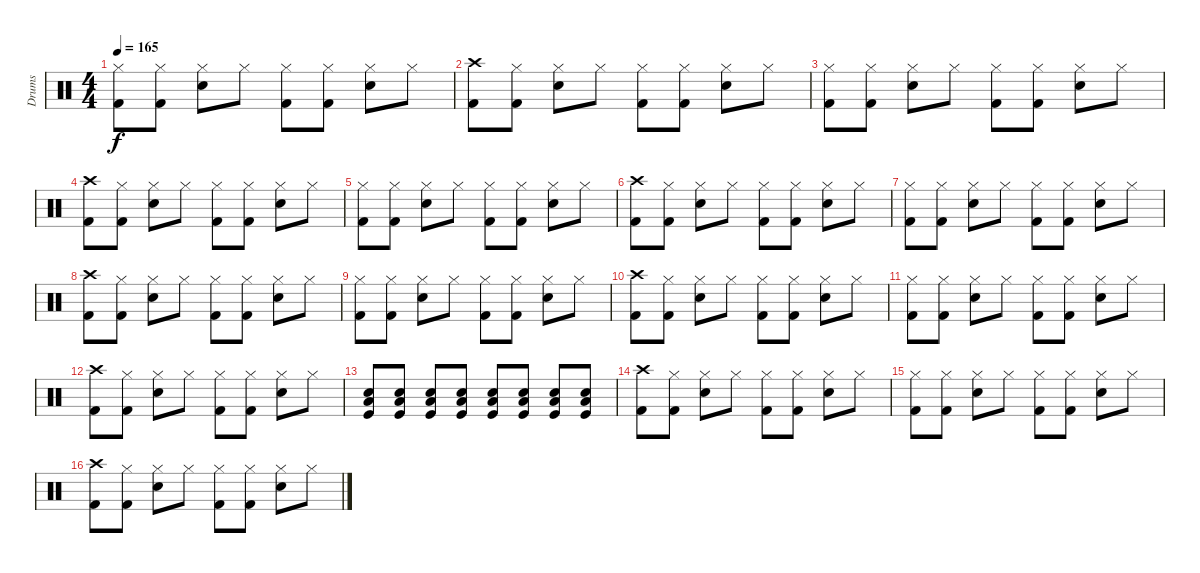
\track ("Drums" "Drums") {instrument percussion}
\staff {score}
\articulation defaults
\ts (4 4)
\tempo 165
\clef neutral
\ks c
("Hi-Hat (closed)" "Kick (hit) 2").8{dy f} ("Hi-Hat (closed)" "Kick (hit) 2").8 ("Hi-Hat (closed)" "Snare (hit) 2").8 "Hi-Hat (closed)".8 ("Hi-Hat (closed)" "Kick (hit) 2").8 ("Hi-Hat (closed)" "Kick (hit) 2").8 ("Hi-Hat (closed)" "Snare (hit) 2").8 "Hi-Hat (closed)".8 |
("Crash high (hit)" "Kick (hit) 2").8 ("Hi-Hat (closed)" "Kick (hit) 2").8 ("Hi-Hat (closed)" "Snare (hit) 2").8 "Hi-Hat (closed)".8 ("Hi-Hat (closed)" "Kick (hit) 2").8 ("Hi-Hat (closed)" "Kick (hit) 2").8 ("Hi-Hat (closed)" "Snare (hit) 2").8 "Hi-Hat (closed)".8 |
("Hi-Hat (closed)" "Kick (hit) 2").8 ("Hi-Hat (closed)" "Kick (hit) 2").8 ("Hi-Hat (closed)" "Snare (hit) 2").8 "Hi-Hat (closed)".8 ("Hi-Hat (closed)" "Kick (hit) 2").8 ("Hi-Hat (closed)" "Kick (hit) 2").8 ("Hi-Hat (closed)" "Snare (hit) 2").8 "Hi-Hat (closed)".8 |
("Crash high (hit)" "Kick (hit) 2").8 ("Hi-Hat (closed)" "Kick (hit) 2").8 ("Hi-Hat (closed)" "Snare (hit) 2").8 "Hi-Hat (closed)".8 ("Hi-Hat (closed)" "Kick (hit) 2").8 ("Hi-Hat (closed)" "Kick (hit) 2").8 ("Hi-Hat (closed)" "Snare (hit) 2").8 "Hi-Hat (closed)".8 |
("Hi-Hat (closed)" "Kick (hit) 2").8 ("Hi-Hat (closed)" "Kick (hit) 2").8 ("Hi-Hat (closed)" "Snare (hit) 2").8 "Hi-Hat (closed)".8 ("Hi-Hat (closed)" "Kick (hit) 2").8 ("Hi-Hat (closed)" "Kick (hit) 2").8 ("Hi-Hat (closed)" "Snare (hit) 2").8 "Hi-Hat (closed)".8 |
("Crash high (hit)" "Kick (hit) 2").8 ("Hi-Hat (closed)" "Kick (hit) 2").8 ("Hi-Hat (closed)" "Snare (hit) 2").8 "Hi-Hat (closed)".8 ("Hi-Hat (closed)" "Kick (hit) 2").8 ("Hi-Hat (closed)" "Kick (hit) 2").8 ("Hi-Hat (closed)" "Snare (hit) 2").8 "Hi-Hat (closed)".8 |
("Hi-Hat (closed)" "Kick (hit) 2").8 ("Hi-Hat (closed)" "Kick (hit) 2").8 ("Hi-Hat (closed)" "Snare (hit) 2").8 "Hi-Hat (closed)".8 ("Hi-Hat (closed)" "Kick (hit) 2").8 ("Hi-Hat (closed)" "Kick (hit) 2").8 ("Hi-Hat (closed)" "Snare (hit) 2").8 "Hi-Hat (closed)".8 |
("Crash high (hit)" "Kick (hit) 2").8 ("Hi-Hat (closed)" "Kick (hit) 2").8 ("Hi-Hat (closed)" "Snare (hit) 2").8 "Hi-Hat (closed)".8 ("Hi-Hat (closed)" "Kick (hit) 2").8 ("Hi-Hat (closed)" "Kick (hit) 2").8 ("Hi-Hat (closed)" "Snare (hit) 2").8 "Hi-Hat (closed)".8 |
("Hi-Hat (closed)" "Kick (hit) 2").8 ("Hi-Hat (closed)" "Kick (hit) 2").8 ("Hi-Hat (closed)" "Snare (hit) 2").8 "Hi-Hat (closed)".8 ("Hi-Hat (closed)" "Kick (hit) 2").8 ("Hi-Hat (closed)" "Kick (hit) 2").8 ("Hi-Hat (closed)" "Snare (hit) 2").8 "Hi-Hat (closed)".8 |
("Crash high (hit)" "Kick (hit) 2").8 ("Hi-Hat (closed)" "Kick (hit) 2").8 ("Hi-Hat (closed)" "Snare (hit) 2").8 "Hi-Hat (closed)".8 ("Hi-Hat (closed)" "Kick (hit) 2").8 ("Hi-Hat (closed)" "Kick (hit) 2").8 ("Hi-Hat (closed)" "Snare (hit) 2").8 "Hi-Hat (closed)".8 |
("Hi-Hat (closed)" "Kick (hit) 2").8 ("Hi-Hat (closed)" "Kick (hit) 2").8 ("Hi-Hat (closed)" "Snare (hit) 2").8 "Hi-Hat (closed)".8 ("Hi-Hat (closed)" "Kick (hit) 2").8 ("Hi-Hat (closed)" "Kick (hit) 2").8 ("Hi-Hat (closed)" "Snare (hit) 2").8 "Hi-Hat (closed)".8 |
("Crash high (hit)" "Kick (hit) 2").8 ("Hi-Hat (closed)" "Kick (hit) 2").8 ("Hi-Hat (closed)" "Snare (hit) 2").8 "Hi-Hat (closed)".8 ("Hi-Hat (closed)" "Kick (hit) 2").8 ("Hi-Hat (closed)" "Kick (hit) 2").8 ("Hi-Hat (closed)" "Snare (hit) 2").8 "Hi-Hat (closed)".8 |
("Snare (hit) 2" "Low Floor Tom (hit)" "Kick (hit)").8 ("Snare (hit) 2" "Low Floor Tom (hit)" "Kick (hit)").8 ("Snare (hit) 2" "Low Floor Tom (hit)" "Kick (hit)").8 ("Snare (hit) 2" "Low Floor Tom (hit)" "Kick (hit)").8 ("Snare (hit) 2" "Low Floor Tom (hit)" "Kick (hit)").8 ("Snare (hit) 2" "Low Floor Tom (hit)" "Kick (hit)").8 ("Snare (hit) 2" "Low Floor Tom (hit)" "Kick (hit)").8 ("Snare (hit) 2" "Low Floor Tom (hit)" "Kick (hit)").8 |
("Crash high (hit)" "Kick (hit) 2").8{volume 14} ("Hi-Hat (closed)" "Kick (hit) 2").8 ("Hi-Hat (closed)" "Snare (hit) 2").8 "Hi-Hat (closed)".8 ("Hi-Hat (closed)" "Kick (hit) 2").8 ("Hi-Hat (closed)" "Kick (hit) 2").8 ("Hi-Hat (closed)" "Snare (hit) 2").8 "Hi-Hat (closed)".8 |
("Hi-Hat (closed)" "Kick (hit) 2").8{volume 12} ("Hi-Hat (closed)" "Kick (hit) 2").8 ("Hi-Hat (closed)" "Snare (hit) 2").8 "Hi-Hat (closed)".8 ("Hi-Hat (closed)" "Kick (hit) 2").8 ("Hi-Hat (closed)" "Kick (hit) 2").8 ("Hi-Hat (closed)" "Snare (hit) 2").8 "Hi-Hat (closed)".8 |
("Crash high (hit)" "Kick (hit) 2").8{volume 10} ("Hi-Hat (closed)" "Kick (hit) 2").8 ("Hi-Hat (closed)" "Snare (hit) 2").8 "Hi-Hat (closed)".8 ("Hi-Hat (closed)" "Kick (hit) 2").8 ("Hi-Hat (closed)" "Kick (hit) 2").8 ("Hi-Hat (closed)" "Snare (hit) 2").8 "Hi-Hat (closed)".8
